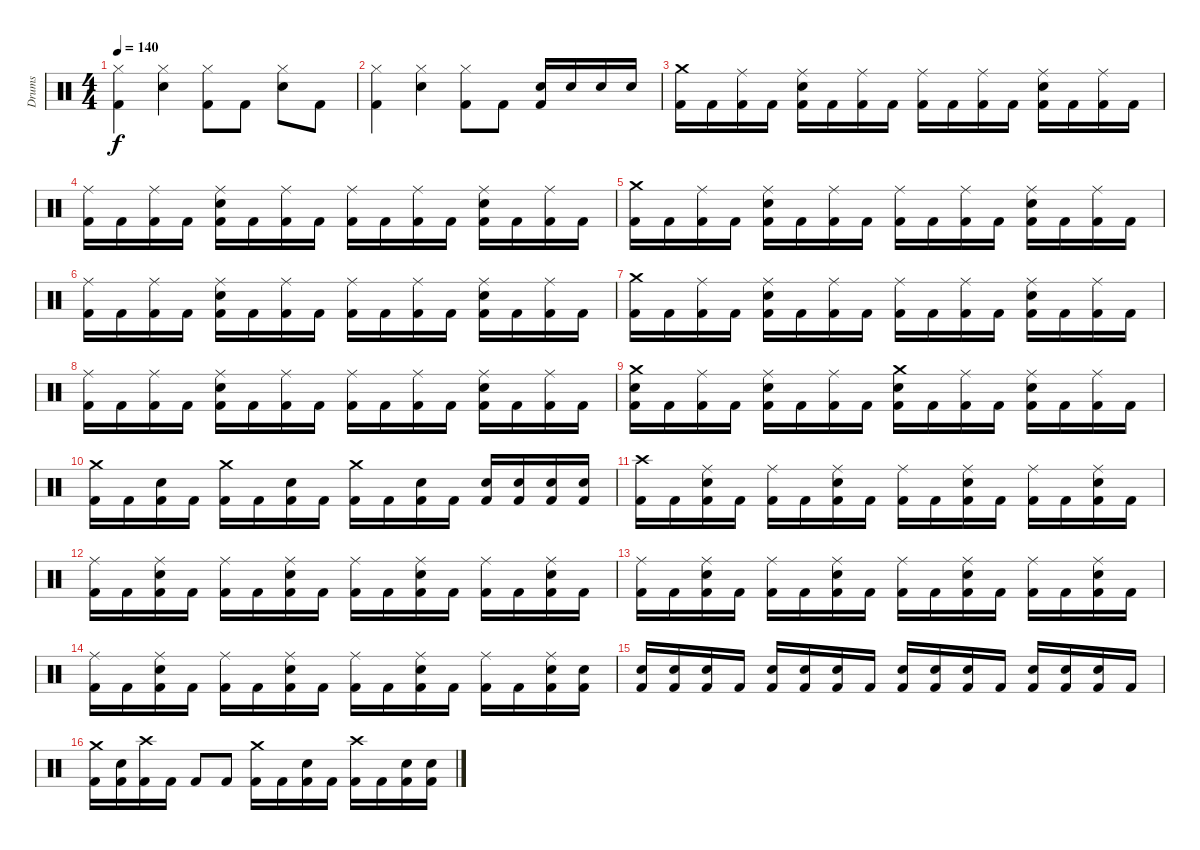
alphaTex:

\track ("Drums" "Drums") {instrument percussion}
\staff {score}
\articulation defaults
\ts (4 4)
\tempo 140
\clef neutral
\ks c
("Hi-Hat (closed)" "Kick (hit) 2").4{dy f} ("Hi-Hat (closed)" "Electric Snare (hit)").4 ("Hi-Hat (closed)" "Kick (hit) 2").8 "Kick (hit) 2".8 ("Hi-Hat (closed)" "Electric Snare (hit)").8 "Kick (hit) 2".8 |
("Hi-Hat (closed)" "Kick (hit) 2").4 ("Hi-Hat (closed)" "Electric Snare (hit)").4 ("Hi-Hat (closed)" "Kick (hit) 2").8 "Kick (hit) 2".8 ("Electric Snare (hit)" "Kick (hit) 2").16 "Electric Snare (hit)".16 "Electric Snare (hit)".16 "Electric Snare (hit)".16 |
("Crash medium (hit)" "Kick (hit) 2").16 "Kick (hit) 2".16 ("Ride (middle)" "Kick (hit) 2").16 "Kick (hit) 2".16 ("Ride (middle)" "Electric Snare (hit)" "Kick (hit) 2").16 "Kick (hit) 2".16 ("Ride (middle)" "Kick (hit) 2").16 "Kick (hit) 2".16 ("Ride (middle)" "Kick (hit) 2").16 "Kick (hit) 2".16 ("Ride (middle)" "Kick (hit) 2").16 "Kick (hit) 2".16 ("Ride (middle)" "Electric Snare (hit)" "Kick (hit) 2").16 "Kick (hit) 2".16 ("Ride (middle)" "Kick (hit) 2").16 "Kick (hit) 2".16 |
("Ride (middle)" "Kick (hit) 2").16 "Kick (hit) 2".16 ("Ride (middle)" "Kick (hit) 2").16 "Kick (hit) 2".16 ("Ride (middle)" "Electric Snare (hit)" "Kick (hit) 2").16 "Kick (hit) 2".16 ("Ride (middle)" "Kick (hit) 2").16 "Kick (hit) 2".16 ("Ride (middle)" "Kick (hit) 2").16 "Kick (hit) 2".16 ("Ride (middle)" "Kick (hit) 2").16 "Kick (hit) 2".16 ("Ride (middle)" "Electric Snare (hit)" "Kick (hit) 2").16 "Kick (hit) 2".16 ("Ride (middle)" "Kick (hit) 2").16 "Kick (hit) 2".16 |
("Crash medium (hit)" "Kick (hit) 2").16 "Kick (hit) 2".16 ("Ride (middle)" "Kick (hit) 2").16 "Kick (hit) 2".16 ("Ride (middle)" "Electric Snare (hit)" "Kick (hit) 2").16 "Kick (hit) 2".16 ("Ride (middle)" "Kick (hit) 2").16 "Kick (hit) 2".16 ("Ride (middle)" "Kick (hit) 2").16 "Kick (hit) 2".16 ("Ride (middle)" "Kick (hit) 2").16 "Kick (hit) 2".16 ("Ride (middle)" "Electric Snare (hit)" "Kick (hit) 2").16 "Kick (hit) 2".16 ("Ride (middle)" "Kick (hit) 2").16 "Kick (hit) 2".16 |
("Ride (middle)" "Kick (hit) 2").16 "Kick (hit) 2".16 ("Ride (middle)" "Kick (hit) 2").16 "Kick (hit) 2".16 ("Ride (middle)" "Electric Snare (hit)" "Kick (hit) 2").16 "Kick (hit) 2".16 ("Ride (middle)" "Kick (hit) 2").16 "Kick (hit) 2".16 ("Ride (middle)" "Kick (hit) 2").16 "Kick (hit) 2".16 ("Ride (middle)" "Kick (hit) 2").16 "Kick (hit) 2".16 ("Ride (middle)" "Electric Snare (hit)" "Kick (hit) 2").16 "Kick (hit) 2".16 ("Ride (middle)" "Kick (hit) 2").16 "Kick (hit) 2".16 |
("Crash medium (hit)" "Kick (hit) 2").16 "Kick (hit) 2".16 ("Ride (middle)" "Kick (hit) 2").16 "Kick (hit) 2".16 ("Ride (middle)" "Electric Snare (hit)" "Kick (hit) 2").16 "Kick (hit) 2".16 ("Ride (middle)" "Kick (hit) 2").16 "Kick (hit) 2".16 ("Ride (middle)" "Kick (hit) 2").16 "Kick (hit) 2".16 ("Ride (middle)" "Kick (hit) 2").16 "Kick (hit) 2".16 ("Ride (middle)" "Electric Snare (hit)" "Kick (hit) 2").16 "Kick (hit) 2".16 ("Ride (middle)" "Kick (hit) 2").16 "Kick (hit) 2".16 |
("Ride (middle)" "Kick (hit) 2").16 "Kick (hit) 2".16 ("Ride (middle)" "Kick (hit) 2").16 "Kick (hit) 2".16 ("Ride (middle)" "Electric Snare (hit)" "Kick (hit) 2").16 "Kick (hit) 2".16 ("Ride (middle)" "Kick (hit) 2").16 "Kick (hit) 2".16 ("Ride (middle)" "Kick (hit) 2").16 "Kick (hit) 2".16 ("Ride (middle)" "Kick (hit) 2").16 "Kick (hit) 2".16 ("Ride (middle)" "Electric Snare (hit)" "Kick (hit) 2").16 "Kick (hit) 2".16 ("Ride (middle)" "Kick (hit) 2").16 "Kick (hit) 2".16 |
("Crash medium (hit)" "Electric Snare (hit)" "Kick (hit) 2").16 "Kick (hit) 2".16 ("Ride (middle)" "Kick (hit) 2").16 "Kick (hit) 2".16 ("Ride (middle)" "Electric Snare (hit)" "Kick (hit) 2").16 "Kick (hit) 2".16 ("Ride (middle)" "Kick (hit) 2").16 "Kick (hit) 2".16 ("Crash medium (hit)" "Electric Snare (hit)" "Kick (hit) 2").16 "Kick (hit) 2".16 ("Ride (middle)" "Kick (hit) 2").16 "Kick (hit) 2".16 ("Ride (middle)" "Electric Snare (hit)" "Kick (hit) 2").16 "Kick (hit) 2".16 ("Ride (middle)" "Kick (hit) 2").16 "Kick (hit) 2".16 |
("Crash medium (hit)" "Kick (hit) 2").16 "Kick (hit) 2".16 ("Electric Snare (hit)" "Kick (hit) 2").16 "Kick (hit) 2".16 ("Crash medium (hit)" "Kick (hit) 2").16 "Kick (hit) 2".16 ("Electric Snare (hit)" "Kick (hit) 2").16 "Kick (hit) 2".16 ("Crash medium (hit)" "Kick (hit) 2").16 "Kick (hit) 2".16 ("Electric Snare (hit)" "Kick (hit) 2").16 "Kick (hit) 2".16 ("Electric Snare (hit)" "Kick (hit) 2").16 ("Electric Snare (hit)" "Kick (hit) 2").16 ("Electric Snare (hit)" "Kick (hit) 2").16 ("Electric Snare (hit)" "Kick (hit) 2").16 |
("Crash high (hit)" "Kick (hit) 2").16 "Kick (hit) 2".16 ("Ride (middle)" "Electric Snare (hit)" "Kick (hit) 2").16 "Kick (hit) 2".16 ("Ride (middle)" "Kick (hit) 2").16 "Kick (hit) 2".16 ("Ride (middle)" "Electric Snare (hit)" "Kick (hit) 2").16 "Kick (hit) 2".16 ("Ride (middle)" "Kick (hit) 2").16 "Kick (hit) 2".16 ("Ride (middle)" "Electric Snare (hit)" "Kick (hit) 2").16 "Kick (hit) 2".16 ("Ride (middle)" "Kick (hit) 2").16 "Kick (hit) 2".16 ("Ride (middle)" "Electric Snare (hit)" "Kick (hit) 2").16 "Kick (hit) 2".16 |
("Ride (middle)" "Kick (hit) 2").16 "Kick (hit) 2".16 ("Ride (middle)" "Electric Snare (hit)" "Kick (hit) 2").16 "Kick (hit) 2".16 ("Ride (middle)" "Kick (hit) 2").16 "Kick (hit) 2".16 ("Ride (middle)" "Electric Snare (hit)" "Kick (hit) 2").16 "Kick (hit) 2".16 ("Ride (middle)" "Kick (hit) 2").16 "Kick (hit) 2".16 ("Ride (middle)" "Electric Snare (hit)" "Kick (hit) 2").16 "Kick (hit) 2".16 ("Ride (middle)" "Kick (hit) 2").16 "Kick (hit) 2".16 ("Ride (middle)" "Electric Snare (hit)" "Kick (hit) 2").16 "Kick (hit) 2".16 |
("Ride (middle)" "Kick (hit) 2").16 "Kick (hit) 2".16 ("Ride (middle)" "Electric Snare (hit)" "Kick (hit) 2").16 "Kick (hit) 2".16 ("Ride (middle)" "Kick (hit) 2").16 "Kick (hit) 2".16 ("Ride (middle)" "Electric Snare (hit)" "Kick (hit) 2").16 "Kick (hit) 2".16 ("Ride (middle)" "Kick (hit) 2").16 "Kick (hit) 2".16 ("Ride (middle)" "Electric Snare (hit)" "Kick (hit) 2").16 "Kick (hit) 2".16 ("Ride (middle)" "Kick (hit) 2").16 "Kick (hit) 2".16 ("Ride (middle)" "Electric Snare (hit)" "Kick (hit) 2").16 "Kick (hit) 2".16 |
("Ride (middle)" "Kick (hit) 2").16 "Kick (hit) 2".16 ("Ride (middle)" "Electric Snare (hit)" "Kick (hit) 2").16 "Kick (hit) 2".16 ("Ride (middle)" "Kick (hit) 2").16 "Kick (hit) 2".16 ("Ride (middle)" "Electric Snare (hit)" "Kick (hit) 2").16 "Kick (hit) 2".16 ("Ride (middle)" "Kick (hit) 2").16 "Kick (hit) 2".16 ("Ride (middle)" "Electric Snare (hit)" "Kick (hit) 2").16 "Kick (hit) 2".16 ("Ride (middle)" "Kick (hit) 2").16 "Kick (hit) 2".16 ("Ride (middle)" "Electric Snare (hit)" "Kick (hit) 2").16 ("Electric Snare (hit)" "Kick (hit) 2").16 |
("Electric Snare (hit)" "Kick (hit) 2").16 ("Electric Snare (hit)" "Kick (hit) 2").16 ("Electric Snare (hit)" "Kick (hit) 2").16 "Kick (hit) 2".16 ("Electric Snare (hit)" "Kick (hit) 2").16 ("Electric Snare (hit)" "Kick (hit) 2").16 ("Electric Snare (hit)" "Kick (hit) 2").16 "Kick (hit) 2".16 ("Electric Snare (hit)" "Kick (hit) 2").16 ("Electric Snare (hit)" "Kick (hit) 2").16 ("Electric Snare (hit)" "Kick (hit) 2").16 "Kick (hit) 2".16 ("Electric Snare (hit)" "Kick (hit) 2").16 ("Electric Snare (hit)" "Kick (hit) 2").16 ("Electric Snare (hit)" "Kick (hit) 2").16 "Kick (hit) 2".16 |
("Crash medium (hit)" "Kick (hit) 2").16 ("Electric Snare (hit)" "Kick (hit) 2").16 ("Crash high (hit)" "Kick (hit) 2").16 "Kick (hit) 2".16 "Kick (hit) 2".8 "Kick (hit) 2".8 ("Crash medium (hit)" "Kick (hit) 2").16 "Kick (hit) 2".16 ("Electric Snare (hit)" "Kick (hit) 2").16 "Kick (hit) 2".16 ("Crash high (hit)" "Kick (hit) 2").16 "Kick (hit) 2".16 ("Electric Snare (hit)" "Kick (hit) 2").16 ("Electric Snare (hit)" "Kick (hit) 2").16
